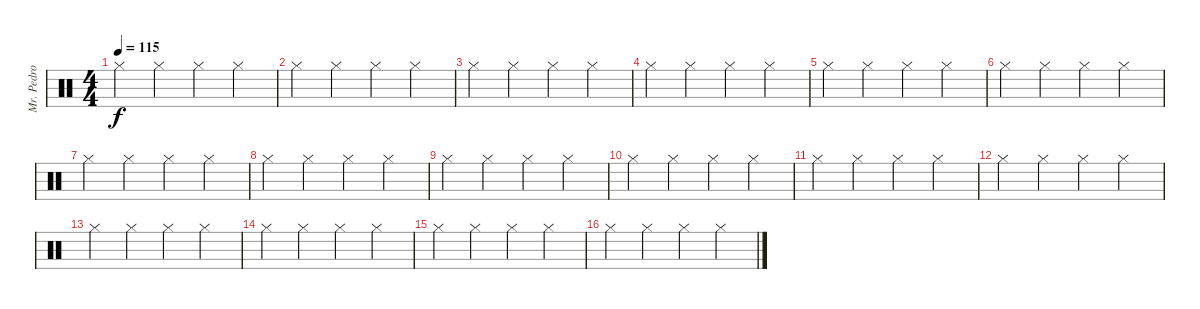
\track ("Mr. Pedro Andreu" "Mr. Pedro ") {instrument percussion}
\staff {score}
\articulation defaults
\ts (4 4)
\tempo 115
\clef neutral
\ks c "Hi-Hat (closed)".4{dy f} "Hi-Hat (closed)".4 "Hi-Hat (closed)".4 "Hi-Hat (closed)".4
|
"Hi-Hat (closed)".4 "Hi-Hat (closed)".4 "Hi-Hat (closed)".4 "Hi-Hat (closed)".4 |
"Hi-Hat (closed)".4 "Hi-Hat (closed)".4 "Hi-Hat (closed)".4 "Hi-Hat (closed)".4 |
"Hi-Hat (closed)".4 "Hi-Hat (closed)".4 "Hi-Hat (closed)".4 "Hi-Hat (closed)".4 |
"Hi-Hat (closed)".4 "Hi-Hat (closed)".4 "Hi-Hat (closed)".4 "Hi-Hat (closed)".4 |
"Hi-Hat (closed)".4 "Hi-Hat (closed)".4 "Hi-Hat (closed)".4 "Hi-Hat (closed)".4 |
"Hi-Hat (closed)".4 "Hi-Hat (closed)".4 "Hi-Hat (closed)".4 "Hi-Hat (closed)".4 |
"Hi-Hat (closed)".4 "Hi-Hat (closed)".4 "Hi-Hat (closed)".4 "Hi-Hat (closed)".4 |
"Hi-Hat (closed)".4 "Hi-Hat (closed)".4 "Hi-Hat (closed)".4 "Hi-Hat (closed)".4 |
"Hi-Hat (closed)".4 "Hi-Hat (closed)".4 "Hi-Hat (closed)".4 "Hi-Hat (closed)".4 |
"Hi-Hat (closed)".4 "Hi-Hat (closed)".4 "Hi-Hat (closed)".4 "Hi-Hat (closed)".4 |
"Hi-Hat (closed)".4 "Hi-Hat (closed)".4 "Hi-Hat (closed)".4 "Hi-Hat (closed)".4 |
"Hi-Hat (closed)".4 "Hi-Hat (closed)".4 "Hi-Hat (closed)".4 "Hi-Hat (closed)".4 |
"Hi-Hat (closed)".4 "Hi-Hat (closed)".4 "Hi-Hat (closed)".4 "Hi-Hat (closed)".4 |
"Hi-Hat (closed)".4 "Hi-Hat (closed)".4 "Hi-Hat (closed)".4 "Hi-Hat (closed)".4 |
"Hi-Hat (closed)".4 "Hi-Hat (closed)".4 "Hi-Hat (closed)".4 "Hi-Hat (closed)".4
